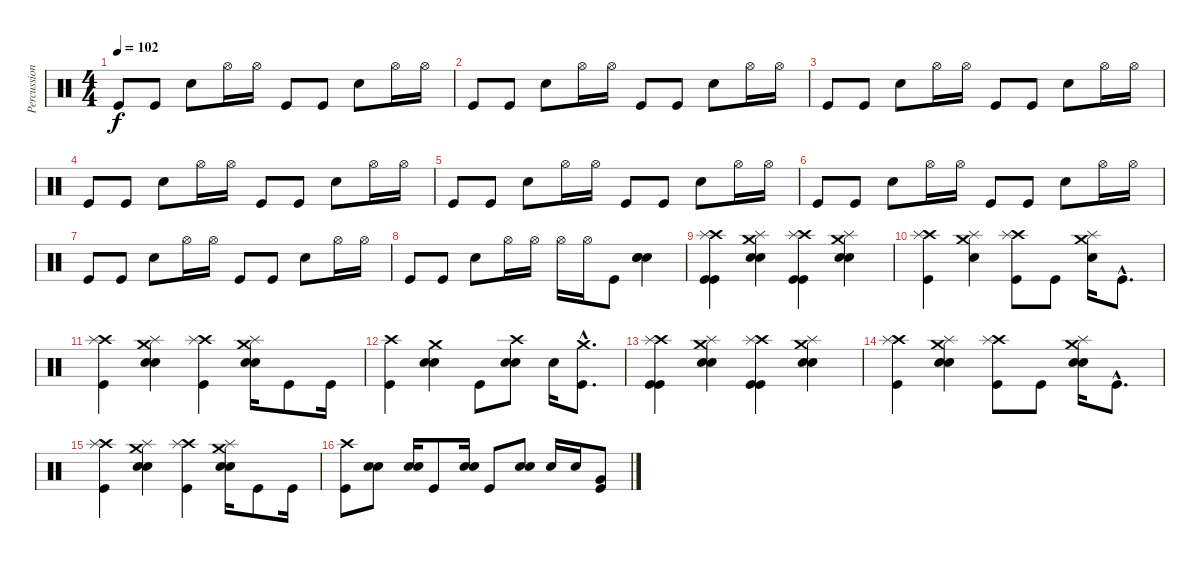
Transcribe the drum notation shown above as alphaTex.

\track ("Percussion (David)" "Percussion") {instrument percussion}
\staff {score}
\articulation defaults
\ts (4 4)
\tempo 102
\clef neutral
\ks c "Kick (hit)".8{dy f} "Kick (hit)".8 "Electric Snare (hit)".8 "Hi-Hat (open)".16 "Hi-Hat (open)".16 "Kick (hit)".8 "Kick (hit)".8 "Electric Snare (hit)".8 "Hi-Hat (open)".16 "Hi-Hat (open)".16
|
"Kick (hit)".8 "Kick (hit)".8 "Electric Snare (hit)".8 "Hi-Hat (open)".16 "Hi-Hat (open)".16 "Kick (hit)".8 "Kick (hit)".8 "Electric Snare (hit)".8 "Hi-Hat (open)".16 "Hi-Hat (open)".16 |
"Kick (hit)".8 "Kick (hit)".8 "Electric Snare (hit)".8 "Hi-Hat (open)".16 "Hi-Hat (open)".16 "Kick (hit)".8 "Kick (hit)".8 "Electric Snare (hit)".8 "Hi-Hat (open)".16 "Hi-Hat (open)".16 |
"Kick (hit)".8 "Kick (hit)".8 "Electric Snare (hit)".8 "Hi-Hat (open)".16 "Hi-Hat (open)".16 "Kick (hit)".8 "Kick (hit)".8 "Electric Snare (hit)".8 "Hi-Hat (open)".16 "Hi-Hat (open)".16 |
"Kick (hit)".8 "Kick (hit)".8 "Electric Snare (hit)".8 "Hi-Hat (open)".16 "Hi-Hat (open)".16 "Kick (hit)".8 "Kick (hit)".8 "Electric Snare (hit)".8 "Hi-Hat (open)".16 "Hi-Hat (open)".16 |
"Kick (hit)".8 "Kick (hit)".8 "Electric Snare (hit)".8 "Hi-Hat (open)".16 "Hi-Hat (open)".16 "Kick (hit)".8 "Kick (hit)".8 "Electric Snare (hit)".8 "Hi-Hat (open)".16 "Hi-Hat (open)".16 |
"Kick (hit)".8 "Kick (hit)".8 "Electric Snare (hit)".8 "Hi-Hat (open)".16 "Hi-Hat (open)".16 "Kick (hit)".8 "Kick (hit)".8 "Electric Snare (hit)".8 "Hi-Hat (open)".16 "Hi-Hat (open)".16 |
"Kick (hit)".8 "Kick (hit)".8 "Electric Snare (hit)".8 "Hi-Hat (open)".16 "Hi-Hat (open)".16 "Hi-Hat (open)".16 "Hi-Hat (open)".16 "Kick (hit)".8 ("Electric Snare (hit)" "Electric Snare (hit)" "Electric Snare (hit)").4 |
("Kick (hit)" "Crash high (hit)" "Splash (hit)" "Kick (hit)").4 ("Electric Snare (hit)" "Crash medium (hit)" "Splash (hit)" "Electric Snare (hit)").4 ("Kick (hit)" "Crash high (hit)" "Splash (hit)" "Kick (hit)").4 ("Electric Snare (hit)" "Crash medium (hit)" "Splash (hit)" "Electric Snare (hit)").4 |
("Kick (hit)" "Crash high (hit)" "Splash (hit)").4 ("Electric Snare (hit)" "Crash medium (hit)" "Splash (hit)").4 ("Kick (hit)" "Crash high (hit)" "Splash (hit)").8 "Kick (hit)".8 ("Electric Snare (hit)" "Crash medium (hit)" "Splash (hit)").16 "Kick (hit)"{hac}.8{d} |
("Kick (hit)" "Crash high (hit)" "Splash (hit)").4 ("Electric Snare (hit)" "Crash medium (hit)" "Splash (hit)" "Electric Snare (hit)").4 ("Kick (hit)" "Crash high (hit)" "Splash (hit)").4 ("Electric Snare (hit)" "Crash medium (hit)" "Splash (hit)" "Electric Snare (hit)").16 "Kick (hit)".8 "Kick (hit)".16 |
("Kick (hit)" "Crash high (hit)").4 ("Electric Snare (hit)" "Crash medium (hit)" "Electric Snare (hit)").4 "Kick (hit)".8 ("Electric Snare (hit)" "Crash high (hit)" "Electric Snare (hit)").8 "Electric Snare (hit)".16 ("Kick (hit)"{hac} "Crash medium (hit)"{hac}).8{d} |
("Kick (hit)" "Crash high (hit)" "Splash (hit)" "Kick (hit)").4 ("Electric Snare (hit)" "Crash medium (hit)" "Splash (hit)" "Electric Snare (hit)").4 ("Kick (hit)" "Crash high (hit)" "Splash (hit)" "Kick (hit)").4 ("Electric Snare (hit)" "Crash medium (hit)" "Splash (hit)" "Electric Snare (hit)").4 |
("Kick (hit)" "Crash high (hit)" "Splash (hit)").4 ("Electric Snare (hit)" "Crash medium (hit)" "Splash (hit)" "Electric Snare (hit)").4 ("Kick (hit)" "Crash high (hit)" "Splash (hit)").8 "Kick (hit)".8 ("Electric Snare (hit)" "Crash medium (hit)" "Splash (hit)" "Electric Snare (hit)").16 "Kick (hit)"{hac}.8{d} |
("Kick (hit)" "Crash high (hit)" "Splash (hit)").4 ("Electric Snare (hit)" "Crash medium (hit)" "Splash (hit)" "Electric Snare (hit)").4 ("Kick (hit)" "Crash high (hit)" "Splash (hit)").4 ("Electric Snare (hit)" "Crash medium (hit)" "Splash (hit)" "Electric Snare (hit)").16 "Kick (hit)".8 "Kick (hit)".16 |
("Kick (hit)" "Crash high (hit)").8 ("Electric Snare (hit)" "Electric Snare (hit)").8 ("Electric Snare (hit)" "Electric Snare (hit)").16 "Kick (hit)".8 ("Electric Snare (hit)" "Electric Snare (hit)").16 "Kick (hit)".8 ("Electric Snare (hit)" "Electric Snare (hit)").8 "Electric Snare (hit)".16 "Electric Snare (hit)".16 ("Kick (hit)" "Very Low Tom (hit)").8
